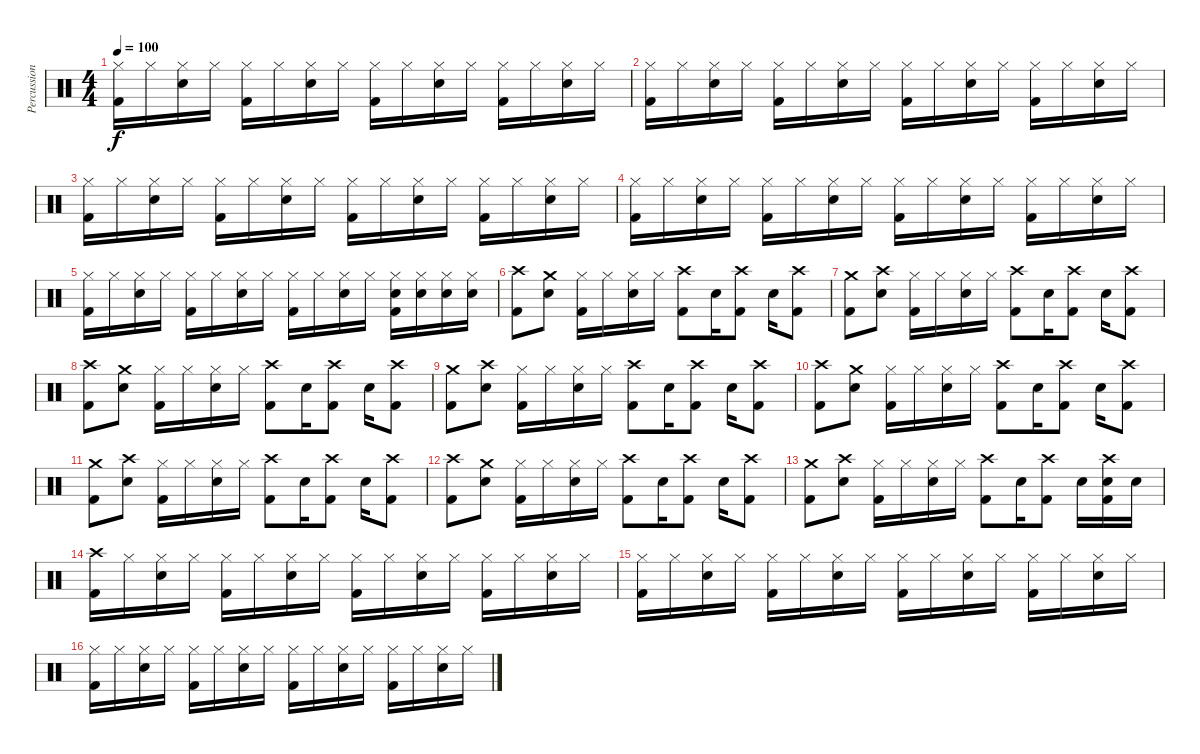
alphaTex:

\track ("Percussion" "Percussion") {instrument percussion}
\staff {score}
\articulation defaults
\ts (4 4)
\tempo 100
\clef neutral
\ks c
("Hi-Hat (closed)" "Kick (hit) 2").16{dy f} "Hi-Hat (closed)".16 ("Hi-Hat (closed)" "Snare (hit) 2").16 "Hi-Hat (closed)".16 ("Hi-Hat (closed)" "Kick (hit) 2").16 "Hi-Hat (closed)".16 ("Hi-Hat (closed)" "Snare (hit) 2").16 "Hi-Hat (closed)".16 ("Hi-Hat (closed)" "Kick (hit) 2").16 "Hi-Hat (closed)".16 ("Hi-Hat (closed)" "Snare (hit) 2").16 "Hi-Hat (closed)".16 ("Hi-Hat (closed)" "Kick (hit) 2").16 "Hi-Hat (closed)".16 ("Hi-Hat (closed)" "Snare (hit) 2").16 "Hi-Hat (closed)".16 |
("Hi-Hat (closed)" "Kick (hit) 2").16 "Hi-Hat (closed)".16 ("Hi-Hat (closed)" "Snare (hit) 2").16 "Hi-Hat (closed)".16 ("Hi-Hat (closed)" "Kick (hit) 2").16 "Hi-Hat (closed)".16 ("Hi-Hat (closed)" "Snare (hit) 2").16 "Hi-Hat (closed)".16 ("Hi-Hat (closed)" "Kick (hit) 2").16 "Hi-Hat (closed)".16 ("Hi-Hat (closed)" "Snare (hit) 2").16 "Hi-Hat (closed)".16 ("Hi-Hat (closed)" "Kick (hit) 2").16 "Hi-Hat (closed)".16 ("Hi-Hat (closed)" "Snare (hit) 2").16 "Hi-Hat (closed)".16 |
("Hi-Hat (closed)" "Kick (hit) 2").16 "Hi-Hat (closed)".16 ("Hi-Hat (closed)" "Snare (hit) 2").16 "Hi-Hat (closed)".16 ("Hi-Hat (closed)" "Kick (hit) 2").16 "Hi-Hat (closed)".16 ("Hi-Hat (closed)" "Snare (hit) 2").16 "Hi-Hat (closed)".16 ("Hi-Hat (closed)" "Kick (hit) 2").16 "Hi-Hat (closed)".16 ("Hi-Hat (closed)" "Snare (hit) 2").16 "Hi-Hat (closed)".16 ("Hi-Hat (closed)" "Kick (hit) 2").16 "Hi-Hat (closed)".16 ("Hi-Hat (closed)" "Snare (hit) 2").16 "Hi-Hat (closed)".16 |
("Hi-Hat (closed)" "Kick (hit) 2").16 "Hi-Hat (closed)".16 ("Hi-Hat (closed)" "Snare (hit) 2").16 "Hi-Hat (closed)".16 ("Hi-Hat (closed)" "Kick (hit) 2").16 "Hi-Hat (closed)".16 ("Hi-Hat (closed)" "Snare (hit) 2").16 "Hi-Hat (closed)".16 ("Hi-Hat (closed)" "Kick (hit) 2").16 "Hi-Hat (closed)".16 ("Hi-Hat (closed)" "Snare (hit) 2").16 "Hi-Hat (closed)".16 ("Hi-Hat (closed)" "Kick (hit) 2").16 "Hi-Hat (closed)".16 ("Hi-Hat (closed)" "Snare (hit) 2").16 "Hi-Hat (closed)".16 |
("Hi-Hat (closed)" "Kick (hit) 2").16 "Hi-Hat (closed)".16 ("Hi-Hat (closed)" "Snare (hit) 2").16 "Hi-Hat (closed)".16 ("Hi-Hat (closed)" "Kick (hit) 2").16 "Hi-Hat (closed)".16 ("Hi-Hat (closed)" "Snare (hit) 2").16 "Hi-Hat (closed)".16 ("Hi-Hat (closed)" "Kick (hit) 2").16 "Hi-Hat (closed)".16 ("Hi-Hat (closed)" "Snare (hit) 2").16 "Hi-Hat (closed)".16 ("Hi-Hat (closed)" "Snare (hit) 2" "Kick (hit) 2").16 ("Hi-Hat (closed)" "Snare (hit) 2").16 ("Hi-Hat (closed)" "Snare (hit) 2").16 ("Hi-Hat (closed)" "Snare (hit) 2").16 |
("Crash high (hit)" "Kick (hit) 2").8 ("Crash medium (hit)" "Snare (hit) 2").8 ("Hi-Hat (closed)" "Kick (hit) 2").16 "Hi-Hat (closed)".16 ("Hi-Hat (closed)" "Snare (hit) 2").16 "Hi-Hat (closed)".16 ("Crash high (hit)" "Kick (hit) 2").8 "Snare (hit) 2".16 ("Crash high (hit)" "Kick (hit) 2").8 "Snare (hit) 2".16 ("Crash high (hit)" "Kick (hit) 2").8 |
("Crash medium (hit)" "Kick (hit) 2").8 ("Crash high (hit)" "Snare (hit) 2").8 ("Hi-Hat (closed)" "Kick (hit) 2").16 "Hi-Hat (closed)".16 ("Hi-Hat (closed)" "Snare (hit) 2").16 "Hi-Hat (closed)".16 ("Crash high (hit)" "Kick (hit) 2").8 "Snare (hit) 2".16 ("Crash high (hit)" "Kick (hit) 2").8 "Snare (hit) 2".16 ("Crash high (hit)" "Kick (hit) 2").8 |
("Crash high (hit)" "Kick (hit) 2").8 ("Crash medium (hit)" "Snare (hit) 2").8 ("Hi-Hat (closed)" "Kick (hit) 2").16 "Hi-Hat (closed)".16 ("Hi-Hat (closed)" "Snare (hit) 2").16 "Hi-Hat (closed)".16 ("Crash high (hit)" "Kick (hit) 2").8 "Snare (hit) 2".16 ("Crash high (hit)" "Kick (hit) 2").8 "Snare (hit) 2".16 ("Crash high (hit)" "Kick (hit) 2").8 |
("Crash medium (hit)" "Kick (hit) 2").8 ("Crash high (hit)" "Snare (hit) 2").8 ("Hi-Hat (closed)" "Kick (hit) 2").16 "Hi-Hat (closed)".16 ("Hi-Hat (closed)" "Snare (hit) 2").16 "Hi-Hat (closed)".16 ("Crash high (hit)" "Kick (hit) 2").8 "Snare (hit) 2".16 ("Crash high (hit)" "Kick (hit) 2").8 "Snare (hit) 2".16 ("Crash high (hit)" "Kick (hit) 2").8 |
("Crash high (hit)" "Kick (hit) 2").8 ("Crash medium (hit)" "Snare (hit) 2").8 ("Hi-Hat (closed)" "Kick (hit) 2").16 "Hi-Hat (closed)".16 ("Hi-Hat (closed)" "Snare (hit) 2").16 "Hi-Hat (closed)".16 ("Crash high (hit)" "Kick (hit) 2").8 "Snare (hit) 2".16 ("Crash high (hit)" "Kick (hit) 2").8 "Snare (hit) 2".16 ("Crash high (hit)" "Kick (hit) 2").8 |
("Crash medium (hit)" "Kick (hit) 2").8 ("Crash high (hit)" "Snare (hit) 2").8 ("Hi-Hat (closed)" "Kick (hit) 2").16 "Hi-Hat (closed)".16 ("Hi-Hat (closed)" "Snare (hit) 2").16 "Hi-Hat (closed)".16 ("Crash high (hit)" "Kick (hit) 2").8 "Snare (hit) 2".16 ("Crash high (hit)" "Kick (hit) 2").8 "Snare (hit) 2".16 ("Crash high (hit)" "Kick (hit) 2").8 |
("Crash high (hit)" "Kick (hit) 2").8 ("Crash medium (hit)" "Snare (hit) 2").8 ("Hi-Hat (closed)" "Kick (hit) 2").16 "Hi-Hat (closed)".16 ("Hi-Hat (closed)" "Snare (hit) 2").16 "Hi-Hat (closed)".16 ("Crash high (hit)" "Kick (hit) 2").8 "Snare (hit) 2".16 ("Crash high (hit)" "Kick (hit) 2").8 "Snare (hit) 2".16 ("Crash high (hit)" "Kick (hit) 2").8 |
("Crash medium (hit)" "Kick (hit) 2").8 ("Crash high (hit)" "Snare (hit) 2").8 ("Hi-Hat (closed)" "Kick (hit) 2").16 "Hi-Hat (closed)".16 ("Hi-Hat (closed)" "Snare (hit) 2").16 "Hi-Hat (closed)".16 ("Crash high (hit)" "Kick (hit) 2").8 "Snare (hit) 2".16 ("Crash high (hit)" "Kick (hit) 2").8 "Snare (hit) 2".16 ("Crash high (hit)" "Snare (hit) 2" "Kick (hit) 2").16 "Snare (hit) 2".16 |
("Crash high (hit)" "Kick (hit) 2").16 "Hi-Hat (closed)".16 ("Hi-Hat (closed)" "Snare (hit) 2").16 "Hi-Hat (closed)".16 ("Hi-Hat (closed)" "Kick (hit) 2").16 "Hi-Hat (closed)".16 ("Hi-Hat (closed)" "Snare (hit) 2").16 "Hi-Hat (closed)".16 ("Hi-Hat (closed)" "Kick (hit) 2").16 "Hi-Hat (closed)".16 ("Hi-Hat (closed)" "Snare (hit) 2").16 "Hi-Hat (closed)".16 ("Hi-Hat (closed)" "Kick (hit) 2").16 "Hi-Hat (closed)".16 ("Hi-Hat (closed)" "Snare (hit) 2").16 "Hi-Hat (closed)".16 |
("Hi-Hat (closed)" "Kick (hit) 2").16 "Hi-Hat (closed)".16 ("Hi-Hat (closed)" "Snare (hit) 2").16 "Hi-Hat (closed)".16 ("Hi-Hat (closed)" "Kick (hit) 2").16 "Hi-Hat (closed)".16 ("Hi-Hat (closed)" "Snare (hit) 2").16 "Hi-Hat (closed)".16 ("Hi-Hat (closed)" "Kick (hit) 2").16 "Hi-Hat (closed)".16 ("Hi-Hat (closed)" "Snare (hit) 2").16 "Hi-Hat (closed)".16 ("Hi-Hat (closed)" "Kick (hit) 2").16 "Hi-Hat (closed)".16 ("Hi-Hat (closed)" "Snare (hit) 2").16 "Hi-Hat (closed)".16 |
("Hi-Hat (closed)" "Kick (hit) 2").16 "Hi-Hat (closed)".16 ("Hi-Hat (closed)" "Snare (hit) 2").16 "Hi-Hat (closed)".16 ("Hi-Hat (closed)" "Kick (hit) 2").16 "Hi-Hat (closed)".16 ("Hi-Hat (closed)" "Snare (hit) 2").16 "Hi-Hat (closed)".16 ("Hi-Hat (closed)" "Kick (hit) 2").16 "Hi-Hat (closed)".16 ("Hi-Hat (closed)" "Snare (hit) 2").16 "Hi-Hat (closed)".16 ("Hi-Hat (closed)" "Kick (hit) 2").16 "Hi-Hat (closed)".16 ("Hi-Hat (closed)" "Snare (hit) 2").16 "Hi-Hat (closed)".16
